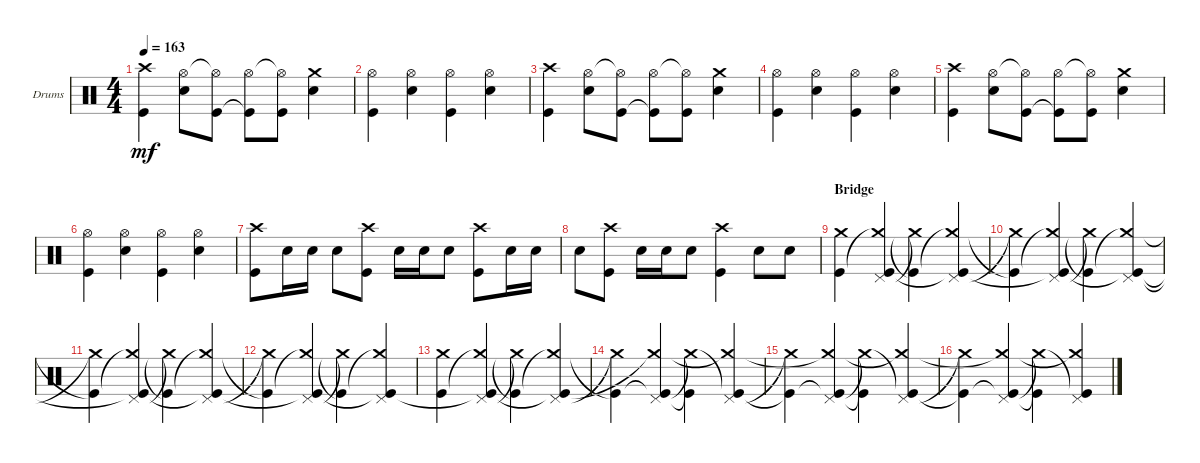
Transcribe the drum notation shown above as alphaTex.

\bracketExtendMode groupsimilarinstruments
\firstSystemTrackNameOrientation horizontal
\otherSystemsTrackNameOrientation horizontal
\track ("Drums" "Drums") {instrument percussion}
\staff {score}
\articulation defaults
\ts (4 4)
\tempo 163
\clef neutral
\scale
0.333333
\ks c
("Kick (hit)" "Crash high (hit)").4{dy mf} ("Snare (hit) 2" "Hi-Hat (open)").8 ("Kick (hit)" "Hi-Hat (open)"{t}).8 ("Kick (hit)"{t} "Hi-Hat (open)").8 ("Kick (hit)" "Hi-Hat (open)"{t}).8 ("Snare (hit) 2" "Crash medium (hit)").4 |
\scale
0.333333 ("Kick (hit)" "Hi-Hat (open)").4 ("Snare (hit) 2" "Hi-Hat (open)").4 ("Kick (hit)" "Hi-Hat (open)").4 ("Snare (hit) 2" "Hi-Hat (open)").4 |
\scale
0.333333 ("Kick (hit)" "Crash high (hit)").4 ("Snare (hit) 2" "Hi-Hat (open)").8 ("Kick (hit)" "Hi-Hat (open)"{t}).8 ("Kick (hit)"{t} "Hi-Hat (open)").8 ("Kick (hit)" "Hi-Hat (open)"{t}).8 ("Snare (hit) 2" "Crash medium (hit)").4 |
\scale
0.333333 ("Kick (hit)" "Hi-Hat (open)").4 ("Snare (hit) 2" "Hi-Hat (open)").4 ("Kick (hit)" "Hi-Hat (open)").4 ("Snare (hit) 2" "Hi-Hat (open)").4 |
\scale
0.333333 ("Kick (hit)" "Crash high (hit)").4 ("Snare (hit) 2" "Hi-Hat (open)").8 ("Kick (hit)" "Hi-Hat (open)"{t}).8 ("Kick (hit)"{t} "Hi-Hat (open)").8 ("Kick (hit)" "Hi-Hat (open)"{t}).8 ("Snare (hit) 2" "Crash medium (hit)").4 |
\scale
0.333333 ("Kick (hit)" "Hi-Hat (open)").4 ("Snare (hit) 2" "Hi-Hat (open)").4 ("Kick (hit)" "Hi-Hat (open)").4 ("Snare (hit) 2" "Hi-Hat (open)").4 |
\scale
0.333333 ("Kick (hit)" "Crash high (hit)").8 "Snare (hit) 2".16 "Snare (hit) 2".16 "Snare (hit) 2".8 ("Kick (hit)" "Crash high (hit)").8 "Snare (hit) 2".16 "Snare (hit) 2".16 "Snare (hit) 2".8 ("Kick (hit)" "Crash high (hit)").8 "Snare (hit) 2".16 "Snare (hit) 2".16 |
\scale
0.333333 "Snare (hit) 2".8 ("Kick (hit)" "Crash high (hit)").8 "Snare (hit) 2".16 "Snare (hit) 2".16 "Snare (hit) 2".8 ("Kick (hit)" "Crash high (hit)").4 "Snare (hit) 2".8 "Snare (hit) 2".8 |
\section ("" "Bridge")
\scale
0.333333 ("Crash medium (hit)" "Kick (hit)").4 ("Pedal Hi-Hat (hit)" "Crash medium (hit)"{t} "Kick (hit)").4 ("Crash medium (hit)"{t} "Kick (hit)"{t}).4 ("Pedal Hi-Hat (hit)" "Crash medium (hit)"{t} "Kick (hit)"{t}).4 |
\scale
0.333333 ("Crash medium (hit)"{t} "Kick (hit)"{t}).4 ("Pedal Hi-Hat (hit)" "Crash medium (hit)"{t} "Kick (hit)"{t}).4 ("Crash medium (hit)"{t} "Kick (hit)"{t}).4 ("Pedal Hi-Hat (hit)" "Crash medium (hit)"{t} "Kick (hit)"{t}).4 |
\scale
0.333333 ("Crash medium (hit)"{t} "Kick (hit)"{t}).4 ("Pedal Hi-Hat (hit)" "Crash medium (hit)"{t} "Kick (hit)"{t}).4 ("Crash medium (hit)"{t} "Kick (hit)"{t}).4 ("Pedal Hi-Hat (hit)" "Crash medium (hit)"{t} "Kick (hit)"{t}).4 |
\scale
0.333333 ("Crash medium (hit)"{t} "Kick (hit)"{t}).4 ("Pedal Hi-Hat (hit)" "Crash medium (hit)"{t} "Kick (hit)"{t}).4 ("Crash medium (hit)"{t} "Kick (hit)"{t}).4 ("Pedal Hi-Hat (hit)" "Crash medium (hit)"{t} "Kick (hit)"{t}).4 |
\scale
0.333333 ("Crash medium (hit)" "Kick (hit)").4 ("Pedal Hi-Hat (hit)" "Crash medium (hit)"{t} "Kick (hit)"{t}).4 ("Crash medium (hit)"{t} "Kick (hit)"{t}).4 ("Pedal Hi-Hat (hit)" "Crash medium (hit)"{t} "Kick (hit)"{t}).4 |
\scale
0.333333 ("Crash medium (hit)"{t} "Kick (hit)"{t}).4 ("Pedal Hi-Hat (hit)" "Kick (hit)"{t} "Crash medium (hit)"{t}).4 ("Kick (hit)"{t} "Crash medium (hit)"{t}).4 ("Pedal Hi-Hat (hit)" "Kick (hit)"{t} "Crash medium (hit)"{t}).4 |
\scale
0.333333 ("Crash medium (hit)"{t} "Kick (hit)"{t}).4 ("Pedal Hi-Hat (hit)" "Kick (hit)"{t} "Crash medium (hit)"{t}).4 ("Kick (hit)"{t} "Crash medium (hit)"{t}).4 ("Pedal Hi-Hat (hit)" "Kick (hit)"{t} "Crash medium (hit)"{t}).4 |
("Crash medium (hit)"{t} "Kick (hit)"{t}).4 ("Pedal Hi-Hat (hit)" "Kick (hit)"{t} "Crash medium (hit)"{t}).4 ("Kick (hit)"{t} "Crash medium (hit)"{t}).4 ("Pedal Hi-Hat (hit)" "Kick (hit)"{t} "Crash medium (hit)"{t}).4
